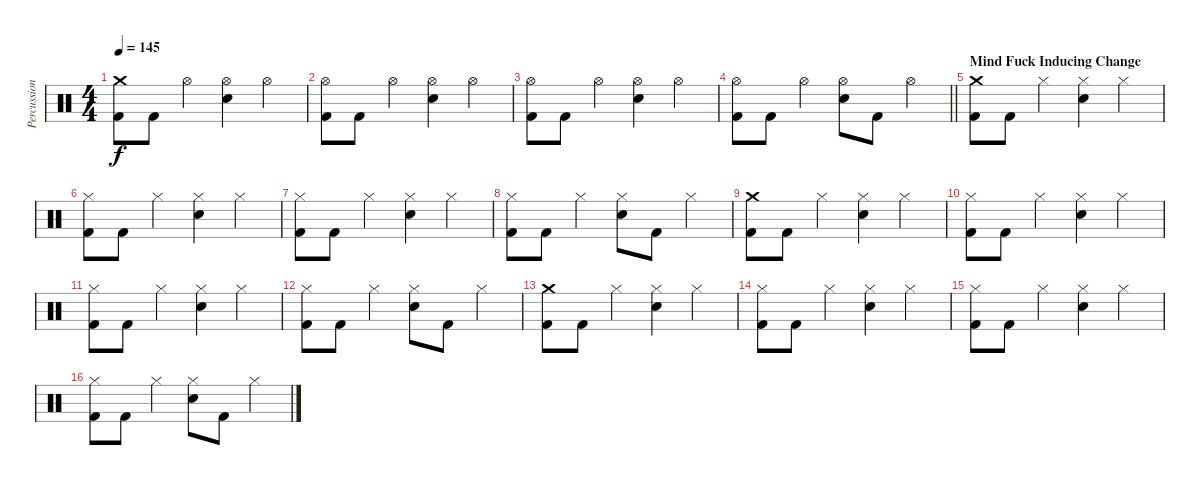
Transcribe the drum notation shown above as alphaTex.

\track ("Percussion" "Percussion") {instrument percussion}
\staff {score}
\articulation defaults
\ts (4 4)
\tempo 145
\clef neutral
\ks c
("Crash medium (hit)" "Kick (hit) 2").8{dy f} "Kick (hit) 2".8 "Hi-Hat (open)".4 ("Hi-Hat (open)" "Electric Snare (hit)").4 "Hi-Hat (open)".4 |
("Hi-Hat (open)" "Kick (hit) 2").8 "Kick (hit) 2".8 "Hi-Hat (open)".4 ("Hi-Hat (open)" "Electric Snare (hit)").4 "Hi-Hat (open)".4 |
("Hi-Hat (open)" "Kick (hit) 2").8 "Kick (hit) 2".8 "Hi-Hat (open)".4 ("Hi-Hat (open)" "Electric Snare (hit)").4 "Hi-Hat (open)".4 |
\barLineRight lightlight
("Hi-Hat (open)" "Kick (hit) 2").8 "Kick (hit) 2".8 "Hi-Hat (open)".4 ("Hi-Hat (open)" "Electric Snare (hit)").8 "Kick (hit) 2".8 "Hi-Hat (open)".4 |
\section ("" "Mind Fuck Inducing Change")
("Crash medium (hit)" "Kick (hit) 2").8 "Kick (hit) 2".8 "Hi-Hat (closed)".4 ("Hi-Hat (closed)" "Electric Snare (hit)").4 "Hi-Hat (closed)".4 |
("Hi-Hat (closed)" "Kick (hit) 2").8 "Kick (hit) 2".8 "Hi-Hat (closed)".4 ("Hi-Hat (closed)" "Electric Snare (hit)").4 "Hi-Hat (closed)".4 |
("Hi-Hat (closed)" "Kick (hit) 2").8 "Kick (hit) 2".8 "Hi-Hat (closed)".4 ("Hi-Hat (closed)" "Electric Snare (hit)").4 "Hi-Hat (closed)".4 |
("Hi-Hat (closed)" "Kick (hit) 2").8 "Kick (hit) 2".8 "Hi-Hat (closed)".4 ("Hi-Hat (closed)" "Electric Snare (hit)").8 "Kick (hit) 2".8 "Hi-Hat (closed)".4 |
("Crash medium (hit)" "Kick (hit) 2").8 "Kick (hit) 2".8 "Hi-Hat (closed)".4 ("Hi-Hat (closed)" "Electric Snare (hit)").4 "Hi-Hat (closed)".4 |
("Hi-Hat (closed)" "Kick (hit) 2").8 "Kick (hit) 2".8 "Hi-Hat (closed)".4 ("Hi-Hat (closed)" "Electric Snare (hit)").4 "Hi-Hat (closed)".4 |
("Hi-Hat (closed)" "Kick (hit) 2").8 "Kick (hit) 2".8 "Hi-Hat (closed)".4 ("Hi-Hat (closed)" "Electric Snare (hit)").4 "Hi-Hat (closed)".4 |
("Hi-Hat (closed)" "Kick (hit) 2").8 "Kick (hit) 2".8 "Hi-Hat (closed)".4 ("Hi-Hat (closed)" "Electric Snare (hit)").8 "Kick (hit) 2".8 "Hi-Hat (closed)".4 |
("Crash medium (hit)" "Kick (hit) 2").8 "Kick (hit) 2".8 "Hi-Hat (closed)".4 ("Hi-Hat (closed)" "Electric Snare (hit)").4 "Hi-Hat (closed)".4 |
("Hi-Hat (closed)" "Kick (hit) 2").8 "Kick (hit) 2".8 "Hi-Hat (closed)".4 ("Hi-Hat (closed)" "Electric Snare (hit)").4 "Hi-Hat (closed)".4 |
("Hi-Hat (closed)" "Kick (hit) 2").8 "Kick (hit) 2".8 "Hi-Hat (closed)".4 ("Hi-Hat (closed)" "Electric Snare (hit)").4 "Hi-Hat (closed)".4 |
("Hi-Hat (closed)" "Kick (hit) 2").8 "Kick (hit) 2".8 "Hi-Hat (closed)".4 ("Hi-Hat (closed)" "Electric Snare (hit)").8 "Kick (hit) 2".8 "Hi-Hat (closed)".4
